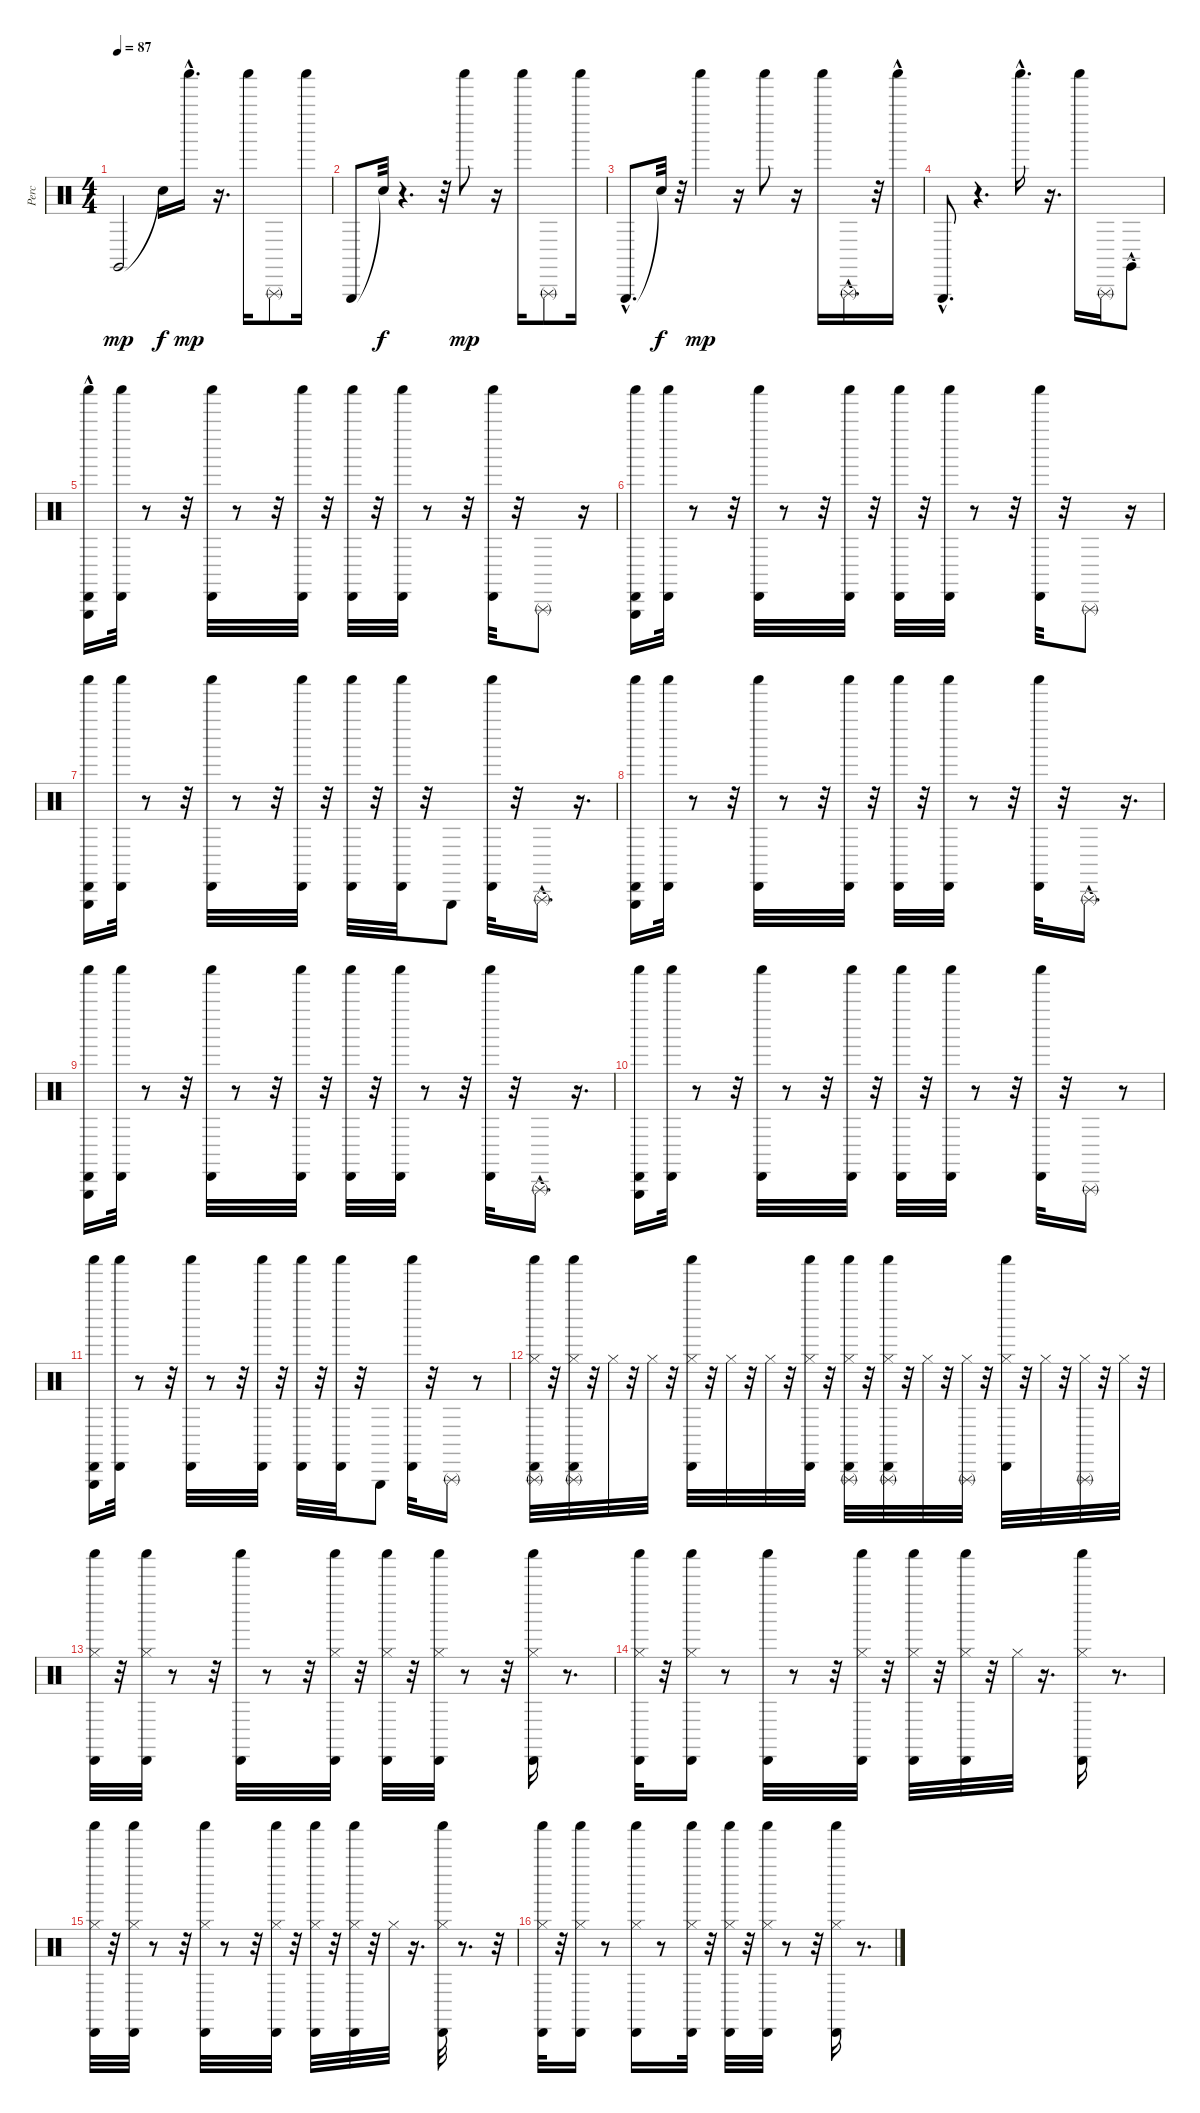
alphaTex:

\track ("Perc" "Perc") {instrument percussion}
\staff {score}
\articulation defaults
\ts (4 4)
\tempo 87
\clef neutral
\ks c "Claves (hit)".2{dy mp} "Snare (hit)"{t}.16{dy f} "Shaker (hit)"{hac}.16{d dy mp}
r.16{d} "Shaker (hit)".16 "Triangle (rnute)".8 "Shaker (hit)".16 |
"Triangle (hit)".8 "Snare (hit)"{t}.32{dy f} r.4{d} r.32 "Shaker (hit)".8{dy mp} r.16 "Shaker (hit)".16 "Triangle (rnute)".8 "Shaker (hit)".16 |
"Triangle (hit)"{hac}.8{d} "Snare (hit)"{t}.32{dy f} r.32 "Shaker (hit)".4{dy mp} r.16 "Shaker (hit)".8 r.16 "Shaker (hit)".16 "Triangle (rnute)"{hac}.16{d} r.32 "Shaker (hit)"{hac}.16 |
"Triangle (hit)"{hac}.8{d} r.4{d} "Shaker (hit)"{hac}.16{d} r.16{d} "Shaker (hit)".16 "Triangle (rnute)".16 "Claves (hit)"{hac}.8 |
("Cabasa (hit)" "Shaker (hit)" "Triangle (hit)"{hac}).16 ("Shaker (hit)" "Cabasa (hit)").32 r.8 r.32 ("Cabasa (hit)" "Shaker (hit)").32 r.8 r.32 ("Cabasa (hit)" "Shaker (hit)").32 r.32 ("Shaker (hit)" "Cabasa (hit)").32 r.32 ("Shaker (hit)" "Cabasa (hit)").32 r.8 r.32 ("Shaker (hit)" "Cabasa (hit)").32 r.32 "Triangle (rnute)".8 r.16 |
("Cabasa (hit)" "Shaker (hit)" "Triangle (hit)").16 ("Shaker (hit)" "Cabasa (hit)").32 r.8 r.32 ("Shaker (hit)" "Cabasa (hit)").32 r.8 r.32 ("Shaker (hit)" "Cabasa (hit)").32 r.32 ("Shaker (hit)" "Cabasa (hit)").32 r.32 ("Shaker (hit)" "Cabasa (hit)").32 r.8 r.32 ("Shaker (hit)" "Cabasa (hit)").32 r.32 "Triangle (rnute)".8 r.16 |
("Cabasa (hit)" "Shaker (hit)" "Triangle (hit)").16 ("Shaker (hit)" "Cabasa (hit)").32 r.8 r.32 ("Cabasa (hit)" "Shaker (hit)").32 r.8 r.32 ("Cabasa (hit)" "Shaker (hit)").32 r.32 ("Shaker (hit)" "Cabasa (hit)").32 r.32 ("Shaker (hit)" "Cabasa (hit)").32 r.32 "Triangle (hit)".8 ("Shaker (hit)" "Cabasa (hit)").32 r.32 "Triangle (rnute)"{hac}.16{d} r.16{d} |
("Cabasa (hit)" "Shaker (hit)" "Triangle (hit)").16 ("Shaker (hit)" "Cabasa (hit)").32 r.8 r.32 ("Shaker (hit)" "Cabasa (hit)").32 r.8 r.32 ("Shaker (hit)" "Cabasa (hit)").32 r.32 ("Shaker (hit)" "Cabasa (hit)").32 r.32 ("Shaker (hit)" "Cabasa (hit)").32 r.8 r.32 ("Shaker (hit)" "Cabasa (hit)").32 r.32 "Triangle (rnute)"{hac}.16{d} r.16{d} |
("Cabasa (hit)" "Shaker (hit)" "Triangle (hit)").16 ("Shaker (hit)" "Cabasa (hit)").32 r.8 r.32 ("Cabasa (hit)" "Shaker (hit)").32 r.8 r.32 ("Cabasa (hit)" "Shaker (hit)").32 r.32 ("Shaker (hit)" "Cabasa (hit)").32 r.32 ("Shaker (hit)" "Cabasa (hit)").32 r.8 r.32 ("Shaker (hit)" "Cabasa (hit)").32 r.32 "Triangle (rnute)"{hac}.16{d} r.16{d} |
("Cabasa (hit)" "Shaker (hit)" "Triangle (hit)").16 ("Shaker (hit)" "Cabasa (hit)").32 r.8 r.32 ("Shaker (hit)" "Cabasa (hit)").32 r.8 r.32 ("Shaker (hit)" "Cabasa (hit)").32 r.32 ("Shaker (hit)" "Cabasa (hit)").32 r.32 ("Shaker (hit)" "Cabasa (hit)").32 r.8 r.32 ("Shaker (hit)" "Cabasa (hit)").32 r.32 "Triangle (rnute)".16 r.8 |
("Cabasa (hit)" "Shaker (hit)" "Triangle (hit)").16 ("Shaker (hit)" "Cabasa (hit)").32 r.8 r.32 ("Cabasa (hit)" "Shaker (hit)").32 r.8 r.32 ("Cabasa (hit)" "Shaker (hit)").32 r.32 ("Shaker (hit)" "Cabasa (hit)").32 r.32 ("Shaker (hit)" "Cabasa (hit)").32 r.32 "Triangle (hit)".8 ("Shaker (hit)" "Cabasa (hit)").32 r.32 "Triangle (rnute)".16 r.8 |
("Cabasa (hit)" "Shaker (hit)" "Triangle (rnute)" "Hi-Hat (closed)").32 r.32 ("Shaker (hit)" "Cabasa (hit)" "Triangle (rnute)" "Hi-Hat (closed)").32 r.32 "Hi-Hat (closed)".32 r.32 "Hi-Hat (closed)".32 r.32 ("Shaker (hit)" "Cabasa (hit)" "Hi-Hat (closed)").32 r.32 "Hi-Hat (closed)".32 r.32 "Hi-Hat (closed)".32 r.32 ("Shaker (hit)" "Cabasa (hit)" "Hi-Hat (closed)").32 r.32 ("Shaker (hit)" "Cabasa (hit)" "Triangle (rnute)" "Hi-Hat (closed)").32 r.32 ("Shaker (hit)" "Cabasa (hit)" "Triangle (rnute)" "Hi-Hat (closed)").32 r.32 "Hi-Hat (closed)".32 r.32 ("Triangle (rnute)" "Hi-Hat (closed)").32 r.32 ("Shaker (hit)" "Cabasa (hit)" "Hi-Hat (closed)").32 r.32 "Hi-Hat (closed)".32 r.32 ("Triangle (rnute)" "Hi-Hat (closed)").32 r.32 "Hi-Hat (closed)".32 r.32 |
("Cabasa (hit)" "Shaker (hit)" "Hi-Hat (closed)").32 r.32 ("Shaker (hit)" "Cabasa (hit)" "Hi-Hat (closed)").32 r.8 r.32 ("Cabasa (hit)" "Shaker (hit)").32 r.8 r.32 ("Cabasa (hit)" "Shaker (hit)" "Hi-Hat (closed)").32 r.32 ("Shaker (hit)" "Cabasa (hit)" "Hi-Hat (closed)").32 r.32 ("Shaker (hit)" "Cabasa (hit)" "Hi-Hat (closed)").32 r.8 r.32 ("Shaker (hit)" "Cabasa (hit)" "Hi-Hat (closed)").16 r.8{d} |
("Cabasa (hit)" "Shaker (hit)" "Hi-Hat (closed)").32 r.32 ("Shaker (hit)" "Cabasa (hit)" "Hi-Hat (closed)").16 r.8 ("Shaker (hit)" "Cabasa (hit)").32 r.8 r.32 ("Shaker (hit)" "Cabasa (hit)" "Hi-Hat (closed)").32 r.32 ("Shaker (hit)" "Cabasa (hit)" "Hi-Hat (closed)").32 r.32 ("Shaker (hit)" "Cabasa (hit)" "Hi-Hat (closed)").32 r.32 "Hi-Hat (closed)".32 r.16{d} ("Shaker (hit)" "Cabasa (hit)" "Hi-Hat (closed)").16 r.8{d} |
("Cabasa (hit)" "Shaker (hit)" "Hi-Hat (closed)").32 r.32 ("Shaker (hit)" "Cabasa (hit)" "Hi-Hat (closed)").32 r.8 r.32 ("Cabasa (hit)" "Shaker (hit)" "Hi-Hat (closed)").32 r.8 r.32 ("Cabasa (hit)" "Shaker (hit)" "Hi-Hat (closed)").32 r.32 ("Shaker (hit)" "Cabasa (hit)" "Hi-Hat (closed)").32 r.32 ("Shaker (hit)" "Cabasa (hit)" "Hi-Hat (closed)").32 r.32 "Hi-Hat (closed)".32 r.16{d} ("Shaker (hit)" "Cabasa (hit)" "Hi-Hat (closed)").32 r.8{d} r.32 |
("Cabasa (hit)" "Shaker (hit)" "Hi-Hat (closed)").32 r.32 ("Shaker (hit)" "Cabasa (hit)" "Hi-Hat (closed)").16 r.8 ("Shaker (hit)" "Cabasa (hit)" "Hi-Hat (closed)").16 r.8 ("Shaker (hit)" "Cabasa (hit)" "Hi-Hat (closed)").32 r.32 ("Shaker (hit)" "Cabasa (hit)" "Hi-Hat (closed)").32 r.32 ("Shaker (hit)" "Cabasa (hit)" "Hi-Hat (closed)").32 r.8 r.32 ("Shaker (hit)" "Cabasa (hit)" "Hi-Hat (closed)").16 r.8{d}
